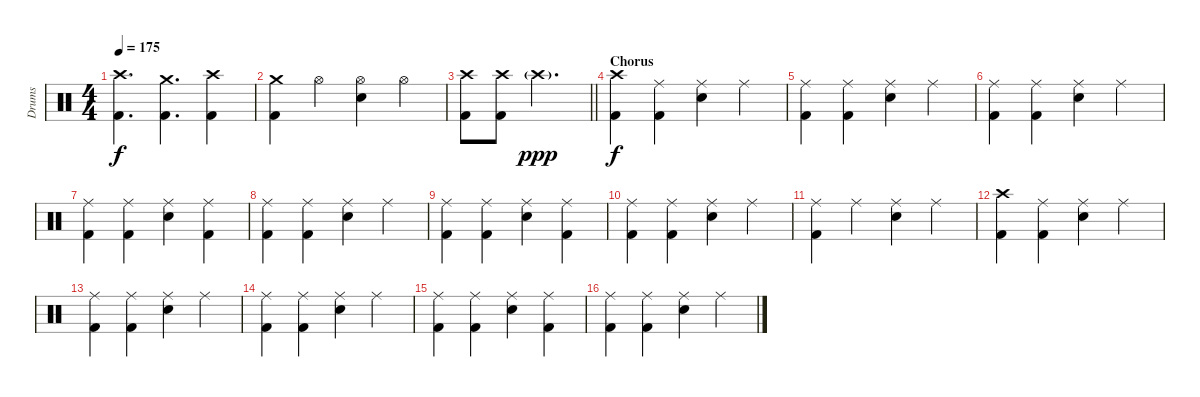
\track ("Drums" "Drums") {instrument percussion}
\staff {score}
\articulation defaults
\ts (4 4)
\tempo 175
\clef neutral
\ks c
("Crash high (hit)" "Kick (hit) 2").4{d dy f} ("Crash medium (hit)" "Kick (hit) 2").4{d} ("Crash high (hit)" "Kick (hit) 2").4 |
("Crash medium (hit)" "Kick (hit) 2").4 "Hi-Hat (open)".4 ("Hi-Hat (open)" "Electric Snare (hit)").4 "Hi-Hat (open)".4 |
\barLineRight lightlight
("Crash high (hit)" "Kick (hit) 2").8 ("Crash high (hit)" "Kick (hit) 2").8 "Crash high (hit)"{g}.2{d dy ppp} |
\section ("" "Chorus")
("Crash high (hit)" "Kick (hit) 2").4{dy f} ("Ride (middle)" "Kick (hit) 2").4 ("Ride (middle)" "Electric Snare (hit)").4 "Ride (middle)".4 |
("Ride (middle)" "Kick (hit) 2").4 ("Ride (middle)" "Kick (hit) 2").4 ("Ride (middle)" "Electric Snare (hit)").4 "Ride (middle)".4 |
("Ride (middle)" "Kick (hit) 2").4 ("Ride (middle)" "Kick (hit) 2").4 ("Ride (middle)" "Electric Snare (hit)").4 "Ride (middle)".4 |
("Ride (middle)" "Kick (hit) 2").4 ("Ride (middle)" "Kick (hit) 2").4 ("Ride (middle)" "Electric Snare (hit)").4 ("Ride (middle)" "Kick (hit) 2").4 |
("Ride (middle)" "Kick (hit) 2").4 ("Ride (middle)" "Kick (hit) 2").4 ("Ride (middle)" "Electric Snare (hit)").4 "Ride (middle)".4 |
("Ride (middle)" "Kick (hit) 2").4 ("Ride (middle)" "Kick (hit) 2").4 ("Ride (middle)" "Electric Snare (hit)").4 ("Ride (middle)" "Kick (hit) 2").4 |
("Ride (middle)" "Kick (hit) 2").4 ("Ride (middle)" "Kick (hit) 2").4 ("Ride (middle)" "Electric Snare (hit)").4 "Ride (middle)".4 |
("Ride (middle)" "Kick (hit) 2").4 "Ride (middle)".4 ("Ride (middle)" "Electric Snare (hit)").4 "Ride (middle)".4 |
("Crash high (hit)" "Kick (hit) 2").4 ("Ride (middle)" "Kick (hit) 2").4 ("Ride (middle)" "Electric Snare (hit)").4 "Ride (middle)".4 |
("Ride (middle)" "Kick (hit) 2").4 ("Ride (middle)" "Kick (hit) 2").4 ("Ride (middle)" "Electric Snare (hit)").4 "Ride (middle)".4 |
("Ride (middle)" "Kick (hit) 2").4 ("Ride (middle)" "Kick (hit) 2").4 ("Ride (middle)" "Electric Snare (hit)").4 "Ride (middle)".4 |
("Ride (middle)" "Kick (hit) 2").4 ("Ride (middle)" "Kick (hit) 2").4 ("Ride (middle)" "Electric Snare (hit)").4 ("Ride (middle)" "Kick (hit) 2").4 |
("Ride (middle)" "Kick (hit) 2").4 ("Ride (middle)" "Kick (hit) 2").4 ("Ride (middle)" "Electric Snare (hit)").4 "Ride (middle)".4
